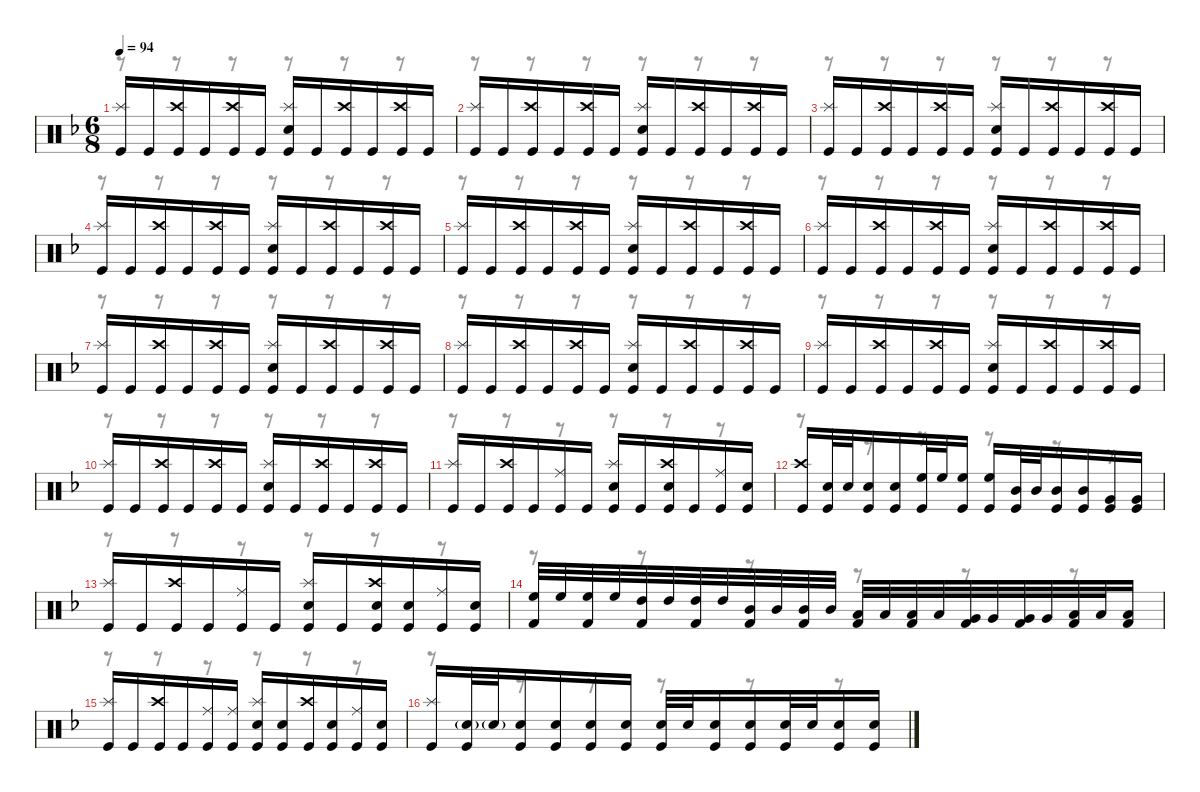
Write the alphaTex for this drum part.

\defaultSystemsLayout 4
\hideDynamics
\bracketExtendMode nobrackets
\singleTrackTrackNamePolicy hidden
\multiTrackTrackNamePolicy hidden
\otherSystemsTrackNameOrientation horizontal
\track ("M. Lopez" "drm.") {instrument percussion}
\staff {score}
\articulation defaults
\voice
\ts (6 8)
\tempo 94
\clef neutral
\ks dminor
("Splash (hit)"{acc forcenatural} "Kick (hit)"{acc forcenatural}).16{dy f beam Up} "Kick (hit)"{acc forcenatural}.16{beam Up} ("Crash high (hit)"{acc forcenatural} "Kick (hit)"{acc forcenatural}).16{beam Up} "Kick (hit)"{acc forcenatural}.16{beam Up} ("Crash high (hit)"{acc forcenatural} "Kick (hit)"{acc forcenatural}).16{beam Up} "Kick (hit)"{acc forcenatural}.16{beam Up} ("Splash (hit)"{acc forcenatural} "Snare (hit) 2"{acc forcenatural} "Kick (hit)"{acc forcenatural}).16{beam Up} "Kick (hit)"{acc forcenatural}.16{beam Up} ("Crash high (hit)"{acc forcenatural} "Kick (hit)"{acc forcenatural}).16{beam Up} "Kick (hit)"{acc forcenatural}.16{beam Up} ("Crash high (hit)"{acc forcenatural} "Kick (hit)"{acc forcenatural}).16{beam Up} "Kick (hit)"{acc forcenatural}.16{beam Up} |
("Splash (hit)"{acc forcenatural} "Kick (hit)"{acc forcenatural}).16{beam Up} "Kick (hit)"{acc forcenatural}.16{beam Up} ("Crash high (hit)"{acc forcenatural} "Kick (hit)"{acc forcenatural}).16{beam Up} "Kick (hit)"{acc forcenatural}.16{beam Up} ("Crash high (hit)"{acc forcenatural} "Kick (hit)"{acc forcenatural}).16{beam Up} "Kick (hit)"{acc forcenatural}.16{beam Up} ("Splash (hit)"{acc forcenatural} "Snare (hit) 2"{acc forcenatural} "Kick (hit)"{acc forcenatural}).16{beam Up} "Kick (hit)"{acc forcenatural}.16{beam Up} ("Crash high (hit)"{acc forcenatural} "Kick (hit)"{acc forcenatural}).16{beam Up} "Kick (hit)"{acc forcenatural}.16{beam Up} ("Crash high (hit)"{acc forcenatural} "Kick (hit)"{acc forcenatural}).16{beam Up} "Kick (hit)"{acc forcenatural}.16{beam Up} |
("Splash (hit)"{acc forcenatural} "Kick (hit)"{acc forcenatural}).16{beam Up} "Kick (hit)"{acc forcenatural}.16{beam Up} ("Crash high (hit)"{acc forcenatural} "Kick (hit)"{acc forcenatural}).16{beam Up} "Kick (hit)"{acc forcenatural}.16{beam Up} ("Crash high (hit)"{acc forcenatural} "Kick (hit)"{acc forcenatural}).16{beam Up} "Kick (hit)"{acc forcenatural}.16{beam Up} ("Splash (hit)"{acc forcenatural} "Snare (hit) 2"{acc forcenatural} "Kick (hit)"{acc forcenatural}).16{beam Up} "Kick (hit)"{acc forcenatural}.16{beam Up} ("Crash high (hit)"{acc forcenatural} "Kick (hit)"{acc forcenatural}).16{beam Up} "Kick (hit)"{acc forcenatural}.16{beam Up} ("Crash high (hit)"{acc forcenatural} "Kick (hit)"{acc forcenatural}).16{beam Up} "Kick (hit)"{acc forcenatural}.16{beam Up} |
("Splash (hit)"{acc forcenatural} "Kick (hit)"{acc forcenatural}).16{beam Up} "Kick (hit)"{acc forcenatural}.16{beam Up} ("Crash high (hit)"{acc forcenatural} "Kick (hit)"{acc forcenatural}).16{beam Up} "Kick (hit)"{acc forcenatural}.16{beam Up} ("Crash high (hit)"{acc forcenatural} "Kick (hit)"{acc forcenatural}).16{beam Up} "Kick (hit)"{acc forcenatural}.16{beam Up} ("Splash (hit)"{acc forcenatural} "Snare (hit) 2"{acc forcenatural} "Kick (hit)"{acc forcenatural}).16{beam Up} "Kick (hit)"{acc forcenatural}.16{beam Up} ("Crash high (hit)"{acc forcenatural} "Kick (hit)"{acc forcenatural}).16{beam Up} "Kick (hit)"{acc forcenatural}.16{beam Up} ("Crash high (hit)"{acc forcenatural} "Kick (hit)"{acc forcenatural}).16{beam Up} "Kick (hit)"{acc forcenatural}.16{beam Up} |
("Splash (hit)"{acc forcenatural} "Kick (hit)"{acc forcenatural}).16{beam Up} "Kick (hit)"{acc forcenatural}.16{beam Up} ("Crash high (hit)"{acc forcenatural} "Kick (hit)"{acc forcenatural}).16{beam Up} "Kick (hit)"{acc forcenatural}.16{beam Up} ("Crash high (hit)"{acc forcenatural} "Kick (hit)"{acc forcenatural}).16{beam Up} "Kick (hit)"{acc forcenatural}.16{beam Up} ("Splash (hit)"{acc forcenatural} "Snare (hit) 2"{acc forcenatural} "Kick (hit)"{acc forcenatural}).16{beam Up} "Kick (hit)"{acc forcenatural}.16{beam Up} ("Crash high (hit)"{acc forcenatural} "Kick (hit)"{acc forcenatural}).16{beam Up} "Kick (hit)"{acc forcenatural}.16{beam Up} ("Crash high (hit)"{acc forcenatural} "Kick (hit)"{acc forcenatural}).16{beam Up} "Kick (hit)"{acc forcenatural}.16{beam Up} |
("Splash (hit)"{acc forcenatural} "Kick (hit)"{acc forcenatural}).16{beam Up} "Kick (hit)"{acc forcenatural}.16{beam Up} ("Crash high (hit)"{acc forcenatural} "Kick (hit)"{acc forcenatural}).16{beam Up} "Kick (hit)"{acc forcenatural}.16{beam Up} ("Crash high (hit)"{acc forcenatural} "Kick (hit)"{acc forcenatural}).16{beam Up} "Kick (hit)"{acc forcenatural}.16{beam Up} ("Splash (hit)"{acc forcenatural} "Snare (hit) 2"{acc forcenatural} "Kick (hit)"{acc forcenatural}).16{beam Up} "Kick (hit)"{acc forcenatural}.16{beam Up} ("Crash high (hit)"{acc forcenatural} "Kick (hit)"{acc forcenatural}).16{beam Up} "Kick (hit)"{acc forcenatural}.16{beam Up} ("Crash high (hit)"{acc forcenatural} "Kick (hit)"{acc forcenatural}).16{beam Up} "Kick (hit)"{acc forcenatural}.16{beam Up} |
("Splash (hit)"{acc forcenatural} "Kick (hit)"{acc forcenatural}).16{beam Up} "Kick (hit)"{acc forcenatural}.16{beam Up} ("Crash high (hit)"{acc forcenatural} "Kick (hit)"{acc forcenatural}).16{beam Up} "Kick (hit)"{acc forcenatural}.16{beam Up} ("Crash high (hit)"{acc forcenatural} "Kick (hit)"{acc forcenatural}).16{beam Up} "Kick (hit)"{acc forcenatural}.16{beam Up} ("Splash (hit)"{acc forcenatural} "Snare (hit) 2"{acc forcenatural} "Kick (hit)"{acc forcenatural}).16{beam Up} "Kick (hit)"{acc forcenatural}.16{beam Up} ("Crash high (hit)"{acc forcenatural} "Kick (hit)"{acc forcenatural}).16{beam Up} "Kick (hit)"{acc forcenatural}.16{beam Up} ("Crash high (hit)"{acc forcenatural} "Kick (hit)"{acc forcenatural}).16{beam Up} "Kick (hit)"{acc forcenatural}.16{beam Up} |
("Splash (hit)"{acc forcenatural} "Kick (hit)"{acc forcenatural}).16{beam Up} "Kick (hit)"{acc forcenatural}.16{beam Up} ("Crash high (hit)"{acc forcenatural} "Kick (hit)"{acc forcenatural}).16{beam Up} "Kick (hit)"{acc forcenatural}.16{beam Up} ("Crash high (hit)"{acc forcenatural} "Kick (hit)"{acc forcenatural}).16{beam Up} "Kick (hit)"{acc forcenatural}.16{beam Up} ("Splash (hit)"{acc forcenatural} "Snare (hit) 2"{acc forcenatural} "Kick (hit)"{acc forcenatural}).16{beam Up} "Kick (hit)"{acc forcenatural}.16{beam Up} ("Crash high (hit)"{acc forcenatural} "Kick (hit)"{acc forcenatural}).16{beam Up} "Kick (hit)"{acc forcenatural}.16{beam Up} ("Crash high (hit)"{acc forcenatural} "Kick (hit)"{acc forcenatural}).16{beam Up} "Kick (hit)"{acc forcenatural}.16{beam Up} |
("Splash (hit)"{acc forcenatural} "Kick (hit)"{acc forcenatural}).16{beam Up} "Kick (hit)"{acc forcenatural}.16{beam Up} ("Crash high (hit)"{acc forcenatural} "Kick (hit)"{acc forcenatural}).16{beam Up} "Kick (hit)"{acc forcenatural}.16{beam Up} ("Crash high (hit)"{acc forcenatural} "Kick (hit)"{acc forcenatural}).16{beam Up} "Kick (hit)"{acc forcenatural}.16{beam Up} ("Splash (hit)"{acc forcenatural} "Snare (hit) 2"{acc forcenatural} "Kick (hit)"{acc forcenatural}).16{beam Up} "Kick (hit)"{acc forcenatural}.16{beam Up} ("Crash high (hit)"{acc forcenatural} "Kick (hit)"{acc forcenatural}).16{beam Up} "Kick (hit)"{acc forcenatural}.16{beam Up} ("Crash high (hit)"{acc forcenatural} "Kick (hit)"{acc forcenatural}).16{beam Up} "Kick (hit)"{acc forcenatural}.16{beam Up} |
("Splash (hit)"{acc forcenatural} "Kick (hit)"{acc forcenatural}).16{beam Up} "Kick (hit)"{acc forcenatural}.16{beam Up} ("Crash high (hit)"{acc forcenatural} "Kick (hit)"{acc forcenatural}).16{beam Up} "Kick (hit)"{acc forcenatural}.16{beam Up} ("Crash high (hit)"{acc forcenatural} "Kick (hit)"{acc forcenatural}).16{beam Up} "Kick (hit)"{acc forcenatural}.16{beam Up} ("Splash (hit)"{acc forcenatural} "Snare (hit) 2"{acc forcenatural} "Kick (hit)"{acc forcenatural}).16{beam Up} "Kick (hit)"{acc forcenatural}.16{beam Up} ("Crash high (hit)"{acc forcenatural} "Kick (hit)"{acc forcenatural}).16{beam Up} "Kick (hit)"{acc forcenatural}.16{beam Up} ("Crash high (hit)"{acc forcenatural} "Kick (hit)"{acc forcenatural}).16{beam Up} "Kick (hit)"{acc forcenatural}.16{beam Up} |
("Splash (hit)"{acc forcenatural} "Kick (hit)"{acc forcenatural}).16{beam Up} "Kick (hit)"{acc forcenatural}.16{beam Up} ("Crash high (hit)"{acc forcenatural} "Kick (hit)"{acc forcenatural}).16{beam Up} "Kick (hit)"{acc forcenatural}.16{beam Up} ("Ride (middle)"{acc forcenatural} "Kick (hit)"{acc forcenatural}).16{dy ff beam Up} "Kick (hit)"{acc forcenatural}.16{dy f beam Up} ("Splash (hit)"{acc forcenatural} "Snare (hit) 2"{acc forcenatural} "Kick (hit)"{acc forcenatural}).16{beam Up} "Kick (hit)"{acc forcenatural}.16{beam Up} ("Crash high (hit)"{acc forcenatural} "Snare (hit) 2"{acc forcenatural} "Kick (hit)"{acc forcenatural}).16{beam Up} "Kick (hit)"{acc forcenatural}.16{beam Up} ("Ride (middle)"{acc forcenatural} "Kick (hit)"{acc forcenatural}).16{dy ff beam Up} ("Snare (hit) 2"{acc forcenatural} "Kick (hit)"{acc forcenatural}).16{beam Up} |
("Crash high (hit)"{acc forcenatural} "Kick (hit)"{acc forcenatural}).16{dy f beam Up} ("Snare (hit) 2"{acc forcenatural} "Kick (hit)"{acc forcenatural}).32{beam Up} "Snare (hit) 2"{acc forcenatural}.32{beam Up} ("Snare (hit) 2"{acc forcenatural} "Kick (hit)"{acc forcenatural}).16{beam Up} ("Snare (hit) 2"{acc forcenatural} "Kick (hit)"{acc forcenatural}).16{beam Up} ("High Floor Tom (hit)"{acc forcenatural} "Kick (hit)"{acc forcenatural}).32{beam Up} "High Floor Tom (hit)"{acc forcenatural}.32{beam Up} ("High Floor Tom (hit)"{acc forcenatural} "Kick (hit)"{acc forcenatural}).16{beam Up} ("High Floor Tom (hit)"{acc forcenatural} "Kick (hit)"{acc forcenatural}).16{beam Up} ("Mid Tom (hit)"{acc forcenatural} "Kick (hit)"{acc forcenatural}).32{beam Up} "Mid Tom (hit)"{acc forcenatural}.32{beam Up} ("Mid Tom (hit)"{acc forcenatural} "Kick (hit)"{acc forcenatural}).16{beam Up} ("Mid Tom (hit)"{acc forcenatural} "Kick (hit)"{acc forcenatural}).16{beam Up} ("Very Low Tom (hit)"{acc forcenatural} "Kick (hit)"{acc forcenatural}).16{beam Up} ("Very Low Tom (hit)"{acc forcenatural} "Kick (hit)"{acc forcenatural}).16{beam Up} |
("Splash (hit)"{acc forcenatural} "Kick (hit)"{acc forcenatural}).16{beam Up} "Kick (hit)"{acc forcenatural}.16{beam Up} ("Crash high (hit)"{acc forcenatural} "Kick (hit)"{acc forcenatural}).16{beam Up} "Kick (hit)"{acc forcenatural}.16{beam Up} ("Ride (middle)"{acc forcenatural} "Kick (hit)"{acc forcenatural}).16{dy ff beam Up} "Kick (hit)"{acc forcenatural}.16{dy f beam Up} ("Splash (hit)"{acc forcenatural} "Snare (hit) 2"{acc forcenatural} "Kick (hit)"{acc forcenatural}).16{beam Up} "Kick (hit)"{acc forcenatural}.16{beam Up} ("Crash high (hit)"{acc forcenatural} "Snare (hit) 2"{acc forcenatural} "Kick (hit)"{acc forcenatural}).16{beam Up} ("Snare (hit) 2"{acc forcenatural} "Kick (hit)"{acc forcenatural}).16{beam Up} ("Ride (middle)"{acc forcenatural} "Kick (hit)"{acc forcenatural}).16{dy ff beam Up} ("Snare (hit) 2"{acc forcenatural} "Kick (hit)"{acc forcenatural}).16{beam Up} |
("High Floor Tom (hit)"{acc forcenatural} "Kick (hit) 2"{acc forcenatural}).32{dy f beam Up} "High Floor Tom (hit)"{acc forcenatural}.32{beam Up} ("High Floor Tom (hit)"{acc forcenatural} "Kick (hit) 2"{acc forcenatural}).32{beam Up} "High Floor Tom (hit)"{acc forcenatural}.32{beam Up} ("High Tom (hit)"{acc forcenatural} "Kick (hit) 2"{acc forcenatural}).32{beam Up} "High Tom (hit)"{acc forcenatural}.32{beam Up} ("High Tom (hit)"{acc forcenatural} "Kick (hit) 2"{acc forcenatural}).32{beam Up} "High Tom (hit)"{acc forcenatural}.32{beam Up} ("Mid Tom (hit)"{acc forcenatural} "Kick (hit) 2"{acc forcenatural}).32{beam Up} "Mid Tom (hit)"{acc forcenatural}.32{beam Up} ("Mid Tom (hit)"{acc forcenatural} "Kick (hit) 2"{acc forcenatural}).32{beam Up} "Mid Tom (hit)"{acc forcenatural}.32{beam Up} ("Low Tom (hit)"{acc forcenatural} "Kick (hit) 2"{acc forcenatural}).32{beam Up} "Low Tom (hit)"{acc forcenatural}.32{beam Up} ("Low Tom (hit)"{acc forcenatural} "Kick (hit) 2"{acc forcenatural}).32{beam Up} "Low Tom (hit)"{acc forcenatural}.32{beam Up} ("Very Low Tom (hit)"{acc forcenatural} "Kick (hit) 2"{acc forcenatural}).32{beam Up} "Very Low Tom (hit)"{acc forcenatural}.32{beam Up} ("Very Low Tom (hit)"{acc forcenatural} "Kick (hit) 2"{acc forcenatural}).32{beam Up} "Very Low Tom (hit)"{acc forcenatural}.32{beam Up} ("Low Floor Tom (hit)"{acc forcenatural} "Kick (hit) 2"{acc forcenatural}).32{beam Up} "Low Floor Tom (hit)"{acc forcenatural}.32{beam Up} ("Low Floor Tom (hit)"{acc forcenatural} "Kick (hit) 2"{acc forcenatural}).16{beam Up} |
("Splash (hit)"{acc forcenatural} "Kick (hit)"{acc forcenatural}).16{beam Up} "Kick (hit)"{acc forcenatural}.16{beam Up} ("Crash high (hit)"{acc forcenatural} "Kick (hit)"{acc forcenatural}).16{beam Up} "Kick (hit)"{acc forcenatural}.16{beam Up} ("Ride (middle)"{acc forcenatural} "Kick (hit)"{acc forcenatural}).16{dy ff beam Up} ("Ride (middle)"{acc forcenatural} "Kick (hit)"{acc forcenatural}).16{dy f beam Up} ("Splash (hit)"{acc forcenatural} "Snare (hit) 2"{acc forcenatural} "Kick (hit)"{acc forcenatural}).16{beam Up} ("Snare (hit) 2"{acc forcenatural} "Kick (hit)"{acc forcenatural}).16{beam Up} ("Crash high (hit)"{acc forcenatural} "Kick (hit)"{acc forcenatural}).16{beam Up} ("Snare (hit) 2"{acc forcenatural} "Kick (hit)"{acc forcenatural}).16{beam Up} ("Ride (middle)"{acc forcenatural} "Kick (hit)"{acc forcenatural}).16{dy ff beam Up} ("Snare (hit) 2"{acc forcenatural} "Kick (hit)"{acc forcenatural}).16{beam Up} |
("Splash (hit)"{acc forcenatural} "Kick (hit)"{acc forcenatural}).16{dy f beam Up} ("Snare (hit) 2"{g acc forcenatural} "Kick (hit)"{acc forcenatural}).32{beam Up} "Snare (hit) 2"{g acc forcenatural}.32{dy ff beam Up} ("Snare (hit) 2"{acc forcenatural} "Kick (hit)"{acc forcenatural}).16{dy f beam Up} ("Snare (hit) 2"{acc forcenatural} "Kick (hit)"{acc forcenatural}).16{beam Up} ("Snare (hit) 2"{acc forcenatural} "Kick (hit)"{acc forcenatural}).16{beam Up} ("Snare (hit) 2"{acc forcenatural} "Kick (hit)"{acc forcenatural}).16{beam Up} ("Snare (hit) 2"{acc forcenatural} "Kick (hit)"{acc forcenatural}).32{beam Up} "Snare (hit) 2"{acc forcenatural}.32{beam Up} ("Snare (hit) 2"{acc forcenatural} "Kick (hit)"{acc forcenatural}).16{beam Up} ("Snare (hit) 2"{acc forcenatural} "Kick (hit)"{acc forcenatural}).16{beam Up} ("Snare (hit) 2"{acc forcenatural} "Kick (hit)"{acc forcenatural}).32{beam Up} "Snare (hit) 2"{acc forcenatural}.32{beam Up} ("Snare (hit) 2"{acc forcenatural} "Kick (hit)"{acc forcenatural}).16{beam Up} ("Snare (hit) 2"{acc forcenatural} "Kick (hit)"{acc forcenatural}).16{beam Up}
\voice
\clef neutral
\ottava regular
\simile none
\ks dminor
r.8{dy mf beam Down} r.8{beam Down} r.8{beam Down} r.8{beam Down} r.8{beam Down} r.8{beam Down} |
r.8{beam Down} r.8{beam Down} r.8{beam Down} r.8{beam Down} r.8{beam Down} r.8{beam Down} |
r.8{beam Down} r.8{beam Down} r.8{beam Down} r.8{beam Down} r.8{beam Down} r.8{beam Down} |
r.8{beam Down} r.8{beam Down} r.8{beam Down} r.8{beam Down} r.8{beam Down} r.8{beam Down} |
r.8{beam Down} r.8{beam Down} r.8{beam Down} r.8{beam Down} r.8{beam Down} r.8{beam Down} |
r.8{beam Down} r.8{beam Down} r.8{beam Down} r.8{beam Down} r.8{beam Down} r.8{beam Down} |
r.8{beam Down} r.8{beam Down} r.8{beam Down} r.8{beam Down} r.8{beam Down} r.8{beam Down} |
r.8{beam Down} r.8{beam Down} r.8{beam Down} r.8{beam Down} r.8{beam Down} r.8{beam Down} |
r.8{beam Down} r.8{beam Down} r.8{beam Down} r.8{beam Down} r.8{beam Down} r.8{beam Down} |
r.8{beam Down} r.8{beam Down} r.8{beam Down} r.8{beam Down} r.8{beam Down} r.8{beam Down} |
r.8{beam Down} r.8{beam Down} r.8{beam Down} r.8{beam Down} r.8{beam Down} r.8{beam Down} |
r.8{beam Down} r.8{beam Down} r.8{beam Down} r.8{beam Down} r.8{beam Down} r.8{beam Down} |
r.8{beam Down} r.8{beam Down} r.8{beam Down} r.8{beam Down} r.8{beam Down} r.8{beam Down} |
r.8{beam Down} r.8{beam Down} r.8{beam Down} r.8{beam Down} r.8{beam Down} r.8{beam Down} |
r.8{beam Down} r.8{beam Down} r.8{beam Down} r.8{beam Down} r.8{beam Down} r.8{beam Down} |
r.8{beam Down} r.8{beam Down} r.8{beam Down} r.8{beam Down} r.8{beam Down} r.8{beam Down}
